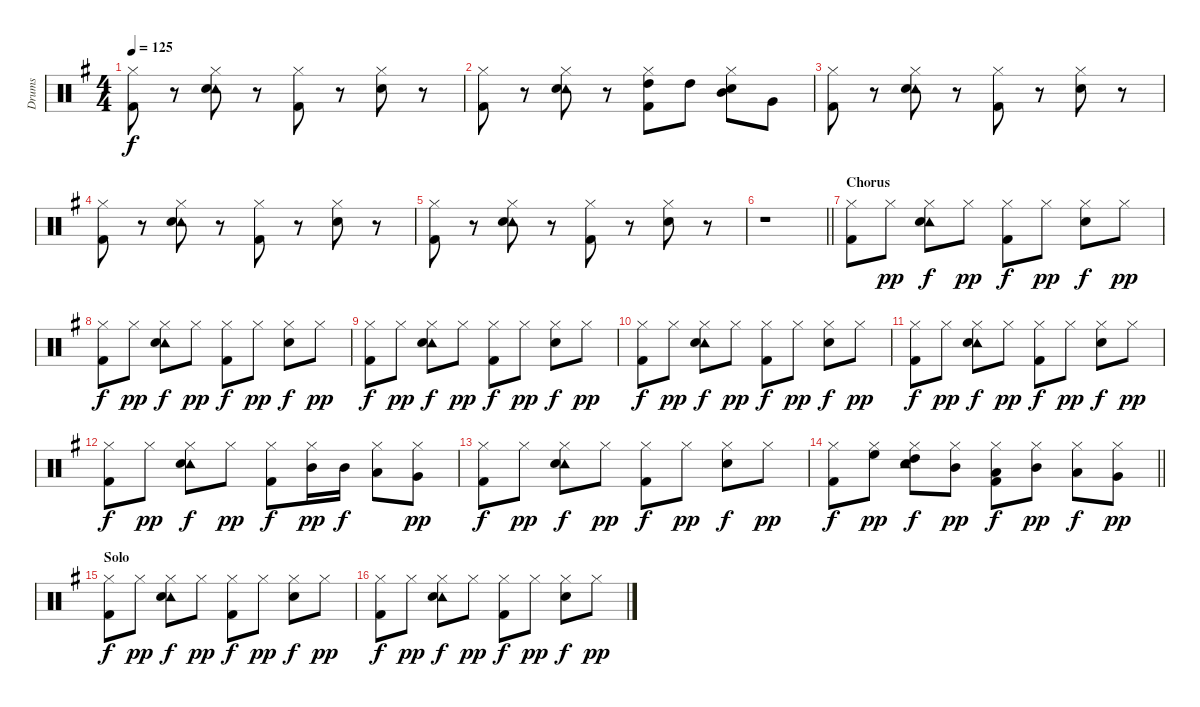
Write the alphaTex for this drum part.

\track ("Drums" "Drums") {instrument percussion}
\staff {score}
\articulation defaults
\ts (4 4)
\tempo 125
\clef neutral
\ks g
("Hi-Hat (closed)" "Kick (hit) 2").8{dy f} r.8 ("Hi-Hat (closed)" "Tambourine (hit)" "Electric Snare (hit)").8 r.8 ("Hi-Hat (closed)" "Kick (hit) 2").8 r.8 ("Hi-Hat (closed)" "Electric Snare (hit)").8 r.8 |
("Hi-Hat (closed)" "Kick (hit) 2").8 r.8 ("Hi-Hat (closed)" "Tambourine (hit)" "Electric Snare (hit)").8 r.8 ("Hi-Hat (closed)" "High Tom (hit)" "Kick (hit) 2").8 "High Tom (hit)".8 ("Hi-Hat (closed)" "Electric Snare (hit)" "Mid Tom (hit)").8 "Very Low Tom (hit)".8 |
("Hi-Hat (closed)" "Kick (hit) 2").8 r.8 ("Hi-Hat (closed)" "Tambourine (hit)" "Electric Snare (hit)").8 r.8 ("Hi-Hat (closed)" "Kick (hit) 2").8 r.8 ("Hi-Hat (closed)" "Electric Snare (hit)").8 r.8 |
("Hi-Hat (closed)" "Kick (hit) 2").8 r.8 ("Hi-Hat (closed)" "Tambourine (hit)" "Electric Snare (hit)").8 r.8 ("Hi-Hat (closed)" "Kick (hit) 2").8 r.8 ("Hi-Hat (closed)" "Electric Snare (hit)").8 r.8 |
("Hi-Hat (closed)" "Kick (hit) 2").8 r.8 ("Hi-Hat (closed)" "Tambourine (hit)" "Electric Snare (hit)").8 r.8 ("Hi-Hat (closed)" "Kick (hit) 2").8 r.8 ("Hi-Hat (closed)" "Electric Snare (hit)").8 r.8 |
\barLineRight lightlight
r.1 |
\section ("" "Chorus")
("Hi-Hat (closed)" "Kick (hit) 2").8 "Hi-Hat (closed)".8{dy pp} ("Hi-Hat (closed)" "Tambourine (hit)" "Electric Snare (hit)").8{dy f} "Hi-Hat (closed)".8{dy pp} ("Hi-Hat (closed)" "Kick (hit) 2").8{dy f} "Hi-Hat (closed)".8{dy pp} ("Hi-Hat (closed)" "Electric Snare (hit)").8{dy f} "Hi-Hat (closed)".8{dy pp} |
("Hi-Hat (closed)" "Kick (hit) 2").8{dy f} "Hi-Hat (closed)".8{dy pp} ("Hi-Hat (closed)" "Tambourine (hit)" "Electric Snare (hit)").8{dy f} "Hi-Hat (closed)".8{dy pp} ("Hi-Hat (closed)" "Kick (hit) 2").8{dy f} "Hi-Hat (closed)".8{dy pp} ("Hi-Hat (closed)" "Electric Snare (hit)").8{dy f} "Hi-Hat (closed)".8{dy pp} |
("Hi-Hat (closed)" "Kick (hit) 2").8{dy f} "Hi-Hat (closed)".8{dy pp} ("Hi-Hat (closed)" "Tambourine (hit)" "Electric Snare (hit)").8{dy f} "Hi-Hat (closed)".8{dy pp} ("Hi-Hat (closed)" "Kick (hit) 2").8{dy f} "Hi-Hat (closed)".8{dy pp} ("Hi-Hat (closed)" "Electric Snare (hit)").8{dy f} "Hi-Hat (closed)".8{dy pp} |
("Hi-Hat (closed)" "Kick (hit) 2").8{dy f} "Hi-Hat (closed)".8{dy pp} ("Hi-Hat (closed)" "Tambourine (hit)" "Electric Snare (hit)").8{dy f} "Hi-Hat (closed)".8{dy pp} ("Hi-Hat (closed)" "Kick (hit) 2").8{dy f} "Hi-Hat (closed)".8{dy pp} ("Hi-Hat (closed)" "Electric Snare (hit)").8{dy f} "Hi-Hat (closed)".8{dy pp} |
("Hi-Hat (closed)" "Kick (hit) 2").8{dy f} "Hi-Hat (closed)".8{dy pp} ("Hi-Hat (closed)" "Tambourine (hit)" "Electric Snare (hit)").8{dy f} "Hi-Hat (closed)".8{dy pp} ("Hi-Hat (closed)" "Kick (hit) 2").8{dy f} "Hi-Hat (closed)".8{dy pp} ("Hi-Hat (closed)" "Electric Snare (hit)").8{dy f} "Hi-Hat (closed)".8{dy pp} |
("Hi-Hat (closed)" "Kick (hit) 2").8{dy f} "Hi-Hat (closed)".8{dy pp} ("Hi-Hat (closed)" "Tambourine (hit)" "Electric Snare (hit)").8{dy f} "Hi-Hat (closed)".8{dy pp} ("Hi-Hat (closed)" "Kick (hit) 2").8{dy f} ("Hi-Hat (closed)" "Mid Tom (hit)").16{dy pp} "Mid Tom (hit)".16{dy f} ("Hi-Hat (closed)" "Low Tom (hit)").8 ("Hi-Hat (closed)" "Very Low Tom (hit)").8{dy pp} |
("Hi-Hat (closed)" "Kick (hit) 2").8{dy f} "Hi-Hat (closed)".8{dy pp} ("Hi-Hat (closed)" "Tambourine (hit)" "Electric Snare (hit)").8{dy f} "Hi-Hat (closed)".8{dy pp} ("Hi-Hat (closed)" "Kick (hit) 2").8{dy f} "Hi-Hat (closed)".8{dy pp} ("Hi-Hat (closed)" "Electric Snare (hit)").8{dy f} "Hi-Hat (closed)".8{dy pp} |
\barLineRight lightlight
("Hi-Hat (closed)" "Kick (hit) 2").8{dy f} ("Hi-Hat (closed)" "High Floor Tom (hit)").8{dy pp} ("Hi-Hat (closed)" "Tambourine (hit)" "Electric Snare (hit)" "High Tom (hit)").8{dy f} ("Hi-Hat (closed)" "Mid Tom (hit)").8{dy pp} ("Hi-Hat (closed)" "Low Tom (hit)" "Kick (hit) 2").8{dy f} ("Hi-Hat (closed)" "Mid Tom (hit)").8{dy pp} ("Hi-Hat (closed)" "Low Tom (hit)").8{dy f} ("Hi-Hat (closed)" "Very Low Tom (hit)").8{dy pp} |
\section ("" "Solo")
("Hi-Hat (closed)" "Kick (hit) 2").8{dy f} "Hi-Hat (closed)".8{dy pp} ("Hi-Hat (closed)" "Tambourine (hit)" "Electric Snare (hit)").8{dy f} "Hi-Hat (closed)".8{dy pp} ("Hi-Hat (closed)" "Kick (hit) 2").8{dy f} "Hi-Hat (closed)".8{dy pp} ("Hi-Hat (closed)" "Electric Snare (hit)").8{dy f} "Hi-Hat (closed)".8{dy pp} |
("Hi-Hat (closed)" "Kick (hit) 2").8{dy f} "Hi-Hat (closed)".8{dy pp} ("Hi-Hat (closed)" "Tambourine (hit)" "Electric Snare (hit)").8{dy f} "Hi-Hat (closed)".8{dy pp} ("Hi-Hat (closed)" "Kick (hit) 2").8{dy f} "Hi-Hat (closed)".8{dy pp} ("Hi-Hat (closed)" "Electric Snare (hit)").8{dy f} "Hi-Hat (closed)".8{dy pp}
